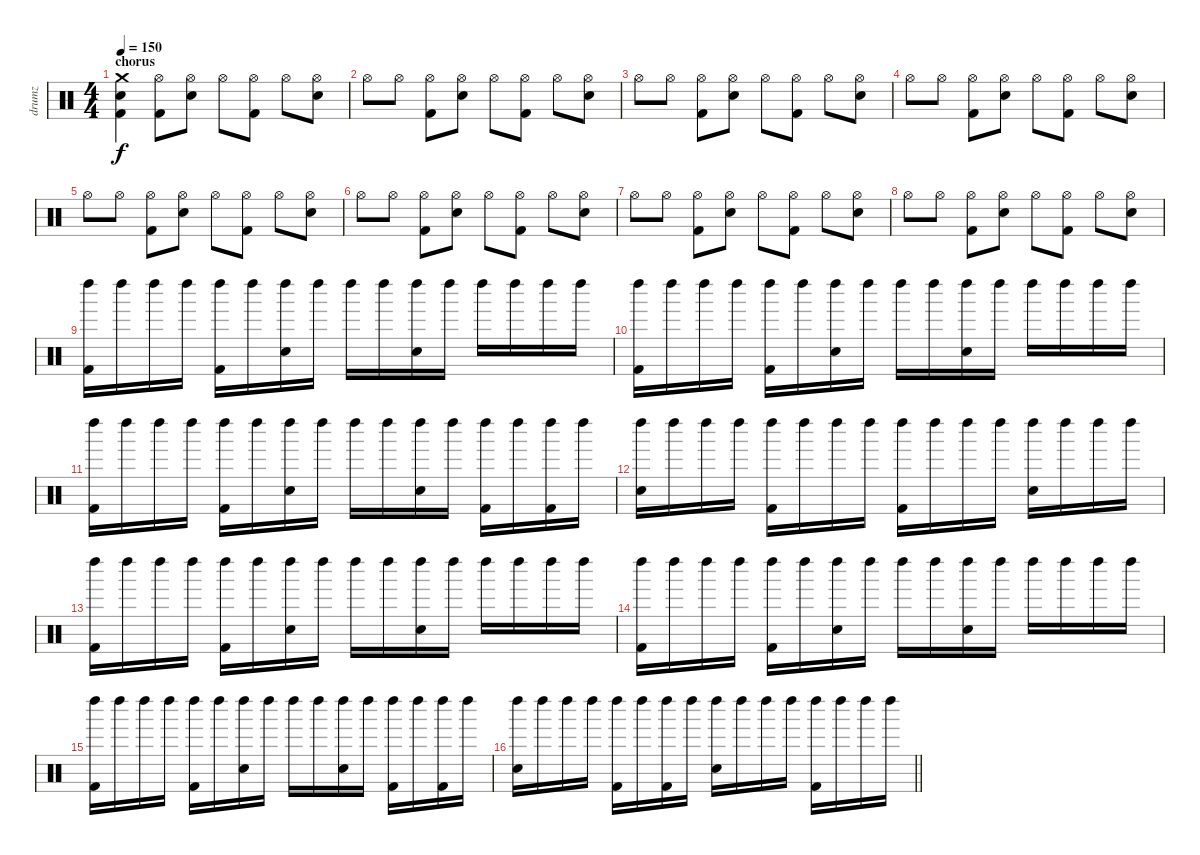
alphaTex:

\track ("drumz" "drumz") {instrument percussion}
\staff {score}
\articulation defaults
\ts (4 4)
\section ("" "chorus")
\tempo 150
\clef neutral
\ks c
("Crash medium (hit)" "Electric Snare (hit)" "Kick (hit) 2").4{dy f} ("Hi-Hat (open)" "Kick (hit) 2").8 ("Hi-Hat (open)" "Electric Snare (hit)").8 "Hi-Hat (open)".8 ("Hi-Hat (open)" "Kick (hit) 2").8 "Hi-Hat (open)".8 ("Hi-Hat (open)" "Electric Snare (hit)").8 |
"Hi-Hat (open)".8 "Hi-Hat (open)".8 ("Hi-Hat (open)" "Kick (hit) 2").8 ("Hi-Hat (open)" "Electric Snare (hit)").8 "Hi-Hat (open)".8 ("Hi-Hat (open)" "Kick (hit) 2").8 "Hi-Hat (open)".8 ("Hi-Hat (open)" "Electric Snare (hit)").8 |
"Hi-Hat (open)".8 "Hi-Hat (open)".8 ("Hi-Hat (open)" "Kick (hit) 2").8 ("Hi-Hat (open)" "Electric Snare (hit)").8 "Hi-Hat (open)".8 ("Hi-Hat (open)" "Kick (hit) 2").8 "Hi-Hat (open)".8 ("Hi-Hat (open)" "Electric Snare (hit)").8 |
"Hi-Hat (open)".8 "Hi-Hat (open)".8 ("Hi-Hat (open)" "Kick (hit) 2").8 ("Hi-Hat (open)" "Electric Snare (hit)").8 "Hi-Hat (open)".8 ("Hi-Hat (open)" "Kick (hit) 2").8 "Hi-Hat (open)".8 ("Hi-Hat (open)" "Electric Snare (hit)").8 |
"Hi-Hat (open)".8 "Hi-Hat (open)".8 ("Hi-Hat (open)" "Kick (hit) 2").8 ("Hi-Hat (open)" "Electric Snare (hit)").8 "Hi-Hat (open)".8 ("Hi-Hat (open)" "Kick (hit) 2").8 "Hi-Hat (open)".8 ("Hi-Hat (open)" "Electric Snare (hit)").8 |
"Hi-Hat (open)".8 "Hi-Hat (open)".8 ("Hi-Hat (open)" "Kick (hit) 2").8 ("Hi-Hat (open)" "Electric Snare (hit)").8 "Hi-Hat (open)".8 ("Hi-Hat (open)" "Kick (hit) 2").8 "Hi-Hat (open)".8 ("Hi-Hat (open)" "Electric Snare (hit)").8 |
"Hi-Hat (open)".8 "Hi-Hat (open)".8 ("Hi-Hat (open)" "Kick (hit) 2").8 ("Hi-Hat (open)" "Electric Snare (hit)").8 "Hi-Hat (open)".8 ("Hi-Hat (open)" "Kick (hit) 2").8 "Hi-Hat (open)".8 ("Hi-Hat (open)" "Electric Snare (hit)").8 |
"Hi-Hat (open)".8 "Hi-Hat (open)".8 ("Hi-Hat (open)" "Kick (hit) 2").8 ("Hi-Hat (open)" "Electric Snare (hit)").8 "Hi-Hat (open)".8 ("Hi-Hat (open)" "Kick (hit) 2").8 "Hi-Hat (open)".8 ("Hi-Hat (open)" "Electric Snare (hit)").8 |
("Left Maraca (hit)" "Kick (hit) 2").16 "Left Maraca (hit)".16 "Left Maraca (hit)".16 "Left Maraca (hit)".16 ("Left Maraca (hit)" "Kick (hit) 2").16 "Left Maraca (hit)".16 ("Left Maraca (hit)" "Electric Snare (hit)").16 "Left Maraca (hit)".16 "Left Maraca (hit)".16 "Left Maraca (hit)".16 ("Left Maraca (hit)" "Electric Snare (hit)").16 "Left Maraca (hit)".16 "Left Maraca (hit)".16 "Left Maraca (hit)".16 "Left Maraca (hit)".16 "Left Maraca (hit)".16 |
("Left Maraca (hit)" "Kick (hit) 2").16 "Left Maraca (hit)".16 "Left Maraca (hit)".16 "Left Maraca (hit)".16 ("Left Maraca (hit)" "Kick (hit) 2").16 "Left Maraca (hit)".16 ("Left Maraca (hit)" "Electric Snare (hit)").16 "Left Maraca (hit)".16 "Left Maraca (hit)".16 "Left Maraca (hit)".16 ("Left Maraca (hit)" "Electric Snare (hit)").16 "Left Maraca (hit)".16 "Left Maraca (hit)".16 "Left Maraca (hit)".16 "Left Maraca (hit)".16 "Left Maraca (hit)".16 |
("Left Maraca (hit)" "Kick (hit) 2").16 "Left Maraca (hit)".16 "Left Maraca (hit)".16 "Left Maraca (hit)".16 ("Left Maraca (hit)" "Kick (hit) 2").16 "Left Maraca (hit)".16 ("Left Maraca (hit)" "Electric Snare (hit)").16 "Left Maraca (hit)".16 "Left Maraca (hit)".16 "Left Maraca (hit)".16 ("Left Maraca (hit)" "Electric Snare (hit)").16 "Left Maraca (hit)".16 ("Left Maraca (hit)" "Kick (hit) 2").16 "Left Maraca (hit)".16 ("Left Maraca (hit)" "Kick (hit) 2").16 "Left Maraca (hit)".16 |
("Left Maraca (hit)" "Electric Snare (hit)").16 "Left Maraca (hit)".16 "Left Maraca (hit)".16 "Left Maraca (hit)".16 ("Left Maraca (hit)" "Kick (hit) 2").16 "Left Maraca (hit)".16 "Left Maraca (hit)".16 "Left Maraca (hit)".16 ("Left Maraca (hit)" "Kick (hit) 2").16 "Left Maraca (hit)".16 "Left Maraca (hit)".16 "Left Maraca (hit)".16 ("Left Maraca (hit)" "Electric Snare (hit)").16 "Left Maraca (hit)".16 "Left Maraca (hit)".16 "Left Maraca (hit)".16 |
("Left Maraca (hit)" "Kick (hit) 2").16 "Left Maraca (hit)".16 "Left Maraca (hit)".16 "Left Maraca (hit)".16 ("Left Maraca (hit)" "Kick (hit) 2").16 "Left Maraca (hit)".16 ("Left Maraca (hit)" "Electric Snare (hit)").16 "Left Maraca (hit)".16 "Left Maraca (hit)".16 "Left Maraca (hit)".16 ("Left Maraca (hit)" "Electric Snare (hit)").16 "Left Maraca (hit)".16 "Left Maraca (hit)".16 "Left Maraca (hit)".16 "Left Maraca (hit)".16 "Left Maraca (hit)".16 |
("Left Maraca (hit)" "Kick (hit) 2").16 "Left Maraca (hit)".16 "Left Maraca (hit)".16 "Left Maraca (hit)".16 ("Left Maraca (hit)" "Kick (hit) 2").16 "Left Maraca (hit)".16 ("Left Maraca (hit)" "Electric Snare (hit)").16 "Left Maraca (hit)".16 "Left Maraca (hit)".16 "Left Maraca (hit)".16 ("Left Maraca (hit)" "Electric Snare (hit)").16 "Left Maraca (hit)".16 "Left Maraca (hit)".16 "Left Maraca (hit)".16 "Left Maraca (hit)".16 "Left Maraca (hit)".16 |
("Left Maraca (hit)" "Kick (hit) 2").16 "Left Maraca (hit)".16 "Left Maraca (hit)".16 "Left Maraca (hit)".16 ("Left Maraca (hit)" "Kick (hit) 2").16 "Left Maraca (hit)".16 ("Left Maraca (hit)" "Electric Snare (hit)").16 "Left Maraca (hit)".16 "Left Maraca (hit)".16 "Left Maraca (hit)".16 ("Left Maraca (hit)" "Electric Snare (hit)").16 "Left Maraca (hit)".16 ("Left Maraca (hit)" "Kick (hit) 2").16 "Left Maraca (hit)".16 ("Left Maraca (hit)" "Kick (hit) 2").16 "Left Maraca (hit)".16 |
\barLineRight lightlight
("Left Maraca (hit)" "Electric Snare (hit)").16 "Left Maraca (hit)".16 "Left Maraca (hit)".16 "Left Maraca (hit)".16 ("Left Maraca (hit)" "Kick (hit) 2").16 "Left Maraca (hit)".16 ("Left Maraca (hit)" "Kick (hit) 2").16 "Left Maraca (hit)".16 ("Left Maraca (hit)" "Electric Snare (hit)").16 "Left Maraca (hit)".16 "Left Maraca (hit)".16 "Left Maraca (hit)".16 ("Left Maraca (hit)" "Kick (hit) 2").16 "Left Maraca (hit)".16 "Left Maraca (hit)".16 "Left Maraca (hit)".16
